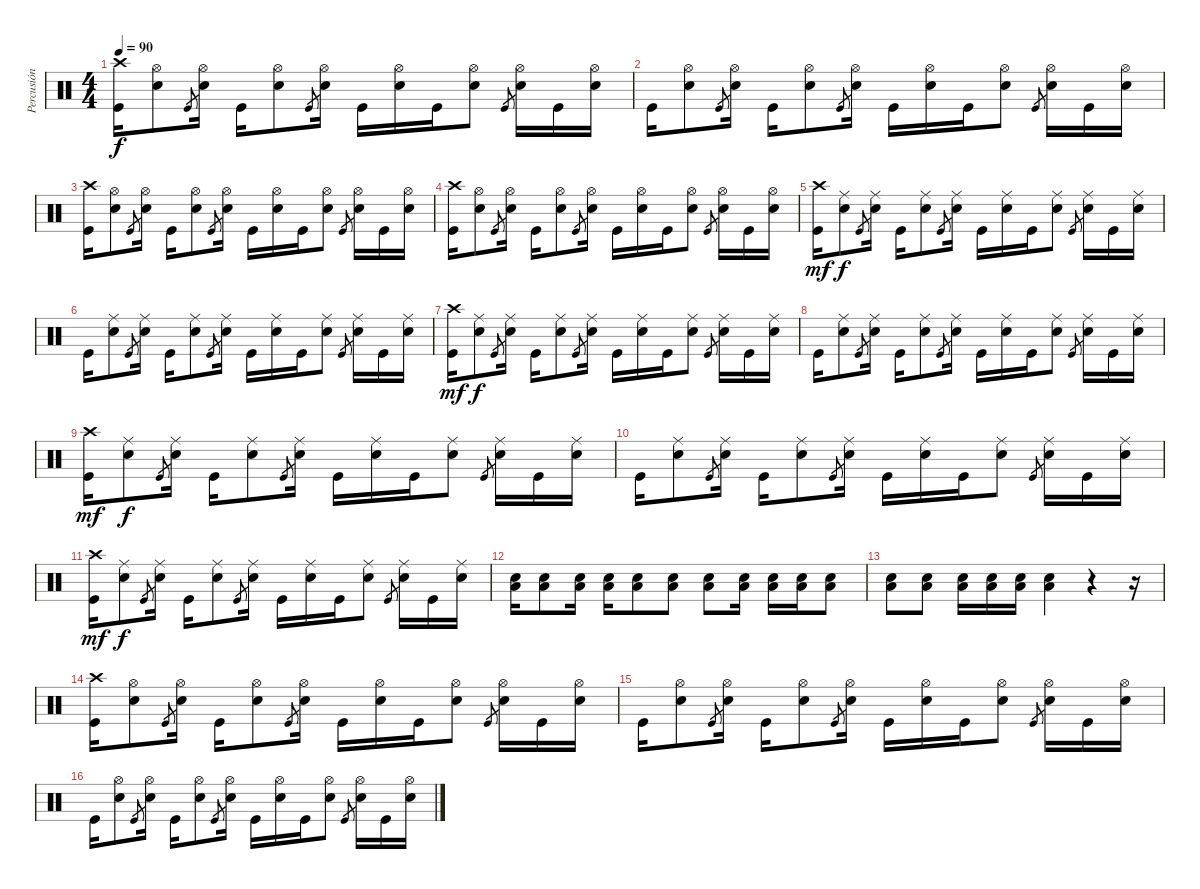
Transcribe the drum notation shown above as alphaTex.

\track ("Percusión" "Percusión") {instrument percussion}
\staff {score}
\articulation defaults
\ts (4 4)
\tempo 90
\clef neutral
\ks c
("Kick (hit)" "Crash high (hit)").16{dy f} ("Snare (hit) 2" "Hi-Hat (open)").8 "Kick (hit)".8{gr} ("Snare (hit) 2" "Hi-Hat (open)").16 "Kick (hit)".16 ("Snare (hit) 2" "Hi-Hat (open)").8 "Kick (hit)".8{gr} ("Snare (hit) 2" "Hi-Hat (open)").16 "Kick (hit)".16 ("Snare (hit) 2" "Hi-Hat (open)").16 "Kick (hit)".16 ("Snare (hit) 2" "Hi-Hat (open)").8 "Kick (hit)".8{gr} ("Snare (hit) 2" "Hi-Hat (open)").16 "Kick (hit)".16 ("Snare (hit) 2" "Hi-Hat (open)").16 |
"Kick (hit)".16 ("Snare (hit) 2" "Hi-Hat (open)").8 "Kick (hit)".8{gr} ("Snare (hit) 2" "Hi-Hat (open)").16 "Kick (hit)".16 ("Snare (hit) 2" "Hi-Hat (open)").8 "Kick (hit)".8{gr} ("Snare (hit) 2" "Hi-Hat (open)").16 "Kick (hit)".16 ("Snare (hit) 2" "Hi-Hat (open)").16 "Kick (hit)".16 ("Snare (hit) 2" "Hi-Hat (open)").8 "Kick (hit)".8{gr} ("Snare (hit) 2" "Hi-Hat (open)").16 "Kick (hit)".16 ("Snare (hit) 2" "Hi-Hat (open)").16 |
("Kick (hit)" "Crash high (hit)").16 ("Snare (hit) 2" "Hi-Hat (open)").8 "Kick (hit)".8{gr} ("Snare (hit) 2" "Hi-Hat (open)").16 "Kick (hit)".16 ("Snare (hit) 2" "Hi-Hat (open)").8 "Kick (hit)".8{gr} ("Snare (hit) 2" "Hi-Hat (open)").16 "Kick (hit)".16 ("Snare (hit) 2" "Hi-Hat (open)").16 "Kick (hit)".16 ("Snare (hit) 2" "Hi-Hat (open)").8 "Kick (hit)".8{gr} ("Snare (hit) 2" "Hi-Hat (open)").16 "Kick (hit)".16 ("Snare (hit) 2" "Hi-Hat (open)").16 |
("Kick (hit)" "Crash high (hit)").16 ("Snare (hit) 2" "Hi-Hat (open)").8 "Kick (hit)".8{gr} ("Snare (hit) 2" "Hi-Hat (open)").16 "Kick (hit)".16 ("Snare (hit) 2" "Hi-Hat (open)").8 "Kick (hit)".8{gr} ("Snare (hit) 2" "Hi-Hat (open)").16 "Kick (hit)".16 ("Snare (hit) 2" "Hi-Hat (open)").16 "Kick (hit)".16 ("Snare (hit) 2" "Hi-Hat (open)").8 "Kick (hit)".8{gr} ("Snare (hit) 2" "Hi-Hat (open)").16 "Kick (hit)".16 ("Snare (hit) 2" "Hi-Hat (open)").16 |
("Kick (hit)" "Crash high (hit)").16{dy mf} ("Snare (hit) 2" "Ride (middle)").8{dy f} "Kick (hit)".8{gr} ("Snare (hit) 2" "Ride (middle)").16 "Kick (hit)".16 ("Snare (hit) 2" "Ride (middle)").8 "Kick (hit)".8{gr} ("Snare (hit) 2" "Ride (middle)").16 "Kick (hit)".16 ("Snare (hit) 2" "Ride (middle)").16 "Kick (hit)".16 ("Snare (hit) 2" "Ride (middle)").8 "Kick (hit)".8{gr} ("Snare (hit) 2" "Ride (middle)").16 "Kick (hit)".16 ("Snare (hit) 2" "Ride (middle)").16 |
"Kick (hit)".16 ("Snare (hit) 2" "Ride (middle)").8 "Kick (hit)".8{gr} ("Snare (hit) 2" "Ride (middle)").16 "Kick (hit)".16 ("Snare (hit) 2" "Ride (middle)").8 "Kick (hit)".8{gr} ("Snare (hit) 2" "Ride (middle)").16 "Kick (hit)".16 ("Snare (hit) 2" "Ride (middle)").16 "Kick (hit)".16 ("Snare (hit) 2" "Ride (middle)").8 "Kick (hit)".8{gr} ("Snare (hit) 2" "Ride (middle)").16 "Kick (hit)".16 ("Snare (hit) 2" "Ride (middle)").16 |
("Kick (hit)" "Crash high (hit)").16{dy mf} ("Snare (hit) 2" "Ride (middle)").8{dy f} "Kick (hit)".8{gr} ("Snare (hit) 2" "Ride (middle)").16 "Kick (hit)".16 ("Snare (hit) 2" "Ride (middle)").8 "Kick (hit)".8{gr} ("Snare (hit) 2" "Ride (middle)").16 "Kick (hit)".16 ("Snare (hit) 2" "Ride (middle)").16 "Kick (hit)".16 ("Snare (hit) 2" "Ride (middle)").8 "Kick (hit)".8{gr} ("Snare (hit) 2" "Ride (middle)").16 "Kick (hit)".16 ("Snare (hit) 2" "Ride (middle)").16 |
"Kick (hit)".16 ("Snare (hit) 2" "Ride (middle)").8 "Kick (hit)".8{gr} ("Snare (hit) 2" "Ride (middle)").16 "Kick (hit)".16 ("Snare (hit) 2" "Ride (middle)").8 "Kick (hit)".8{gr} ("Snare (hit) 2" "Ride (middle)").16 "Kick (hit)".16 ("Snare (hit) 2" "Ride (middle)").16 "Kick (hit)".16 ("Snare (hit) 2" "Ride (middle)").8 "Kick (hit)".8{gr} ("Snare (hit) 2" "Ride (middle)").16 "Kick (hit)".16 ("Snare (hit) 2" "Ride (middle)").16 |
("Kick (hit)" "Crash high (hit)").16{dy mf} ("Snare (hit) 2" "Ride (middle)").8{dy f} "Kick (hit)".8{gr} ("Snare (hit) 2" "Ride (middle)").16 "Kick (hit)".16 ("Snare (hit) 2" "Ride (middle)").8 "Kick (hit)".8{gr} ("Snare (hit) 2" "Ride (middle)").16 "Kick (hit)".16 ("Snare (hit) 2" "Ride (middle)").16 "Kick (hit)".16 ("Snare (hit) 2" "Ride (middle)").8 "Kick (hit)".8{gr} ("Snare (hit) 2" "Ride (middle)").16 "Kick (hit)".16 ("Snare (hit) 2" "Ride (middle)").16 |
"Kick (hit)".16 ("Snare (hit) 2" "Ride (middle)").8 "Kick (hit)".8{gr} ("Snare (hit) 2" "Ride (middle)").16 "Kick (hit)".16 ("Snare (hit) 2" "Ride (middle)").8 "Kick (hit)".8{gr} ("Snare (hit) 2" "Ride (middle)").16 "Kick (hit)".16 ("Snare (hit) 2" "Ride (middle)").16 "Kick (hit)".16 ("Snare (hit) 2" "Ride (middle)").8 "Kick (hit)".8{gr} ("Snare (hit) 2" "Ride (middle)").16 "Kick (hit)".16 ("Snare (hit) 2" "Ride (middle)").16 |
("Kick (hit)" "Crash high (hit)").16{dy mf} ("Snare (hit) 2" "Ride (middle)").8{dy f} "Kick (hit)".8{gr} ("Snare (hit) 2" "Ride (middle)").16 "Kick (hit)".16 ("Snare (hit) 2" "Ride (middle)").8 "Kick (hit)".8{gr} ("Snare (hit) 2" "Ride (middle)").16 "Kick (hit)".16 ("Snare (hit) 2" "Ride (middle)").16 "Kick (hit)".16 ("Snare (hit) 2" "Ride (middle)").8 "Kick (hit)".8{gr} ("Snare (hit) 2" "Ride (middle)").16 "Kick (hit)".16 ("Snare (hit) 2" "Ride (middle)").16 |
("Snare (hit) 2" "Low Floor Tom (hit)").16 ("Snare (hit) 2" "Low Floor Tom (hit)").8 ("Snare (hit) 2" "Low Floor Tom (hit)").16 ("Snare (hit) 2" "Low Floor Tom (hit)").16 ("Snare (hit) 2" "Low Floor Tom (hit)").8 ("Snare (hit) 2" "Low Floor Tom (hit)").8 ("Snare (hit) 2" "Low Floor Tom (hit)").8 ("Snare (hit) 2" "Low Floor Tom (hit)").16 ("Snare (hit) 2" "Low Floor Tom (hit)").16 ("Snare (hit) 2" "Low Floor Tom (hit)").16 ("Snare (hit) 2" "Low Floor Tom (hit)").8 |
("Snare (hit) 2" "Low Floor Tom (hit)").8 ("Snare (hit) 2" "Low Floor Tom (hit)").8 ("Snare (hit) 2" "Low Floor Tom (hit)").16 ("Snare (hit) 2" "Low Floor Tom (hit)").16 ("Snare (hit) 2" "Low Floor Tom (hit)").16 ("Snare (hit) 2" "Low Floor Tom (hit)").4 r.4 r.16 |
("Kick (hit)" "Crash high (hit)").16 ("Snare (hit) 2" "Hi-Hat (open)").8 "Kick (hit)".8{gr} ("Snare (hit) 2" "Hi-Hat (open)").16 "Kick (hit)".16 ("Snare (hit) 2" "Hi-Hat (open)").8 "Kick (hit)".8{gr} ("Snare (hit) 2" "Hi-Hat (open)").16 "Kick (hit)".16 ("Snare (hit) 2" "Hi-Hat (open)").16 "Kick (hit)".16 ("Snare (hit) 2" "Hi-Hat (open)").8 "Kick (hit)".8{gr} ("Snare (hit) 2" "Hi-Hat (open)").16 "Kick (hit)".16 ("Snare (hit) 2" "Hi-Hat (open)").16 |
"Kick (hit)".16 ("Snare (hit) 2" "Hi-Hat (open)").8 "Kick (hit)".8{gr} ("Snare (hit) 2" "Hi-Hat (open)").16 "Kick (hit)".16 ("Snare (hit) 2" "Hi-Hat (open)").8 "Kick (hit)".8{gr} ("Snare (hit) 2" "Hi-Hat (open)").16 "Kick (hit)".16 ("Snare (hit) 2" "Hi-Hat (open)").16 "Kick (hit)".16 ("Snare (hit) 2" "Hi-Hat (open)").8 "Kick (hit)".8{gr} ("Snare (hit) 2" "Hi-Hat (open)").16 "Kick (hit)".16 ("Snare (hit) 2" "Hi-Hat (open)").16 |
"Kick (hit)".16 ("Snare (hit) 2" "Hi-Hat (open)").8 "Kick (hit)".8{gr} ("Snare (hit) 2" "Hi-Hat (open)").16 "Kick (hit)".16 ("Snare (hit) 2" "Hi-Hat (open)").8 "Kick (hit)".8{gr} ("Snare (hit) 2" "Hi-Hat (open)").16 "Kick (hit)".16 ("Snare (hit) 2" "Hi-Hat (open)").16 "Kick (hit)".16 ("Snare (hit) 2" "Hi-Hat (open)").8 "Kick (hit)".8{gr} ("Snare (hit) 2" "Hi-Hat (open)").16 "Kick (hit)".16 ("Snare (hit) 2" "Hi-Hat (open)").16
